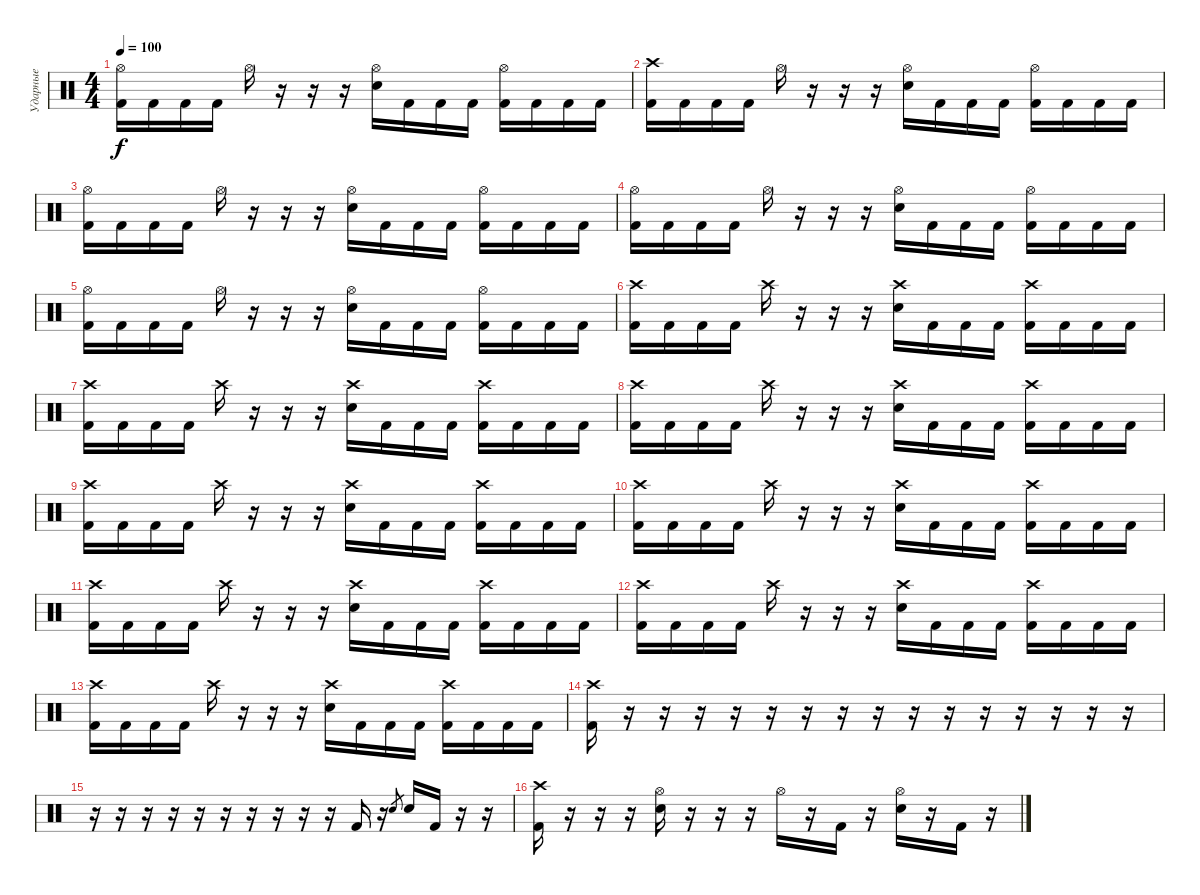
\track ("Ударные" "Ударные") {instrument percussion}
\staff {score}
\articulation defaults
\ts (4 4)
\tempo 100
\clef neutral
\ks c
("Hi-Hat (open)" "Kick (hit) 2").16{dy f} "Kick (hit) 2".16 "Kick (hit) 2".16 "Kick (hit) 2".16 "Hi-Hat (open)".16 r.16 r.16 r.16 ("Hi-Hat (open)" "Electric Snare (hit)").16 "Kick (hit) 2".16 "Kick (hit) 2".16 "Kick (hit) 2".16 ("Hi-Hat (open)" "Kick (hit) 2").16 "Kick (hit) 2".16 "Kick (hit) 2".16 "Kick (hit) 2".16 |
("Crash high (hit)" "Kick (hit) 2").16 "Kick (hit) 2".16 "Kick (hit) 2".16 "Kick (hit) 2".16 "Hi-Hat (open)".16 r.16 r.16 r.16 ("Hi-Hat (open)" "Electric Snare (hit)").16 "Kick (hit) 2".16 "Kick (hit) 2".16 "Kick (hit) 2".16 ("Hi-Hat (open)" "Kick (hit) 2").16 "Kick (hit) 2".16 "Kick (hit) 2".16 "Kick (hit) 2".16 |
("Hi-Hat (open)" "Kick (hit) 2").16 "Kick (hit) 2".16 "Kick (hit) 2".16 "Kick (hit) 2".16 "Hi-Hat (open)".16 r.16 r.16 r.16 ("Hi-Hat (open)" "Electric Snare (hit)").16 "Kick (hit) 2".16 "Kick (hit) 2".16 "Kick (hit) 2".16 ("Hi-Hat (open)" "Kick (hit) 2").16 "Kick (hit) 2".16 "Kick (hit) 2".16 "Kick (hit) 2".16 |
("Hi-Hat (open)" "Kick (hit) 2").16 "Kick (hit) 2".16 "Kick (hit) 2".16 "Kick (hit) 2".16 "Hi-Hat (open)".16 r.16 r.16 r.16 ("Hi-Hat (open)" "Electric Snare (hit)").16 "Kick (hit) 2".16 "Kick (hit) 2".16 "Kick (hit) 2".16 ("Hi-Hat (open)" "Kick (hit) 2").16 "Kick (hit) 2".16 "Kick (hit) 2".16 "Kick (hit) 2".16 |
("Hi-Hat (open)" "Kick (hit) 2").16 "Kick (hit) 2".16 "Kick (hit) 2".16 "Kick (hit) 2".16 "Hi-Hat (open)".16 r.16 r.16 r.16 ("Hi-Hat (open)" "Electric Snare (hit)").16 "Kick (hit) 2".16 "Kick (hit) 2".16 "Kick (hit) 2".16 ("Hi-Hat (open)" "Kick (hit) 2").16 "Kick (hit) 2".16 "Kick (hit) 2".16 "Kick (hit) 2".16 |
("Crash high (hit)" "Kick (hit) 2").16 "Kick (hit) 2".16 "Kick (hit) 2".16 "Kick (hit) 2".16 "Crash high (hit)".16 r.16 r.16 r.16 ("Crash high (hit)" "Electric Snare (hit)").16 "Kick (hit) 2".16 "Kick (hit) 2".16 "Kick (hit) 2".16 ("Crash high (hit)" "Kick (hit) 2").16 "Kick (hit) 2".16 "Kick (hit) 2".16 "Kick (hit) 2".16 |
("Crash high (hit)" "Kick (hit) 2").16 "Kick (hit) 2".16 "Kick (hit) 2".16 "Kick (hit) 2".16 "Crash high (hit)".16 r.16 r.16 r.16 ("Crash high (hit)" "Electric Snare (hit)").16 "Kick (hit) 2".16 "Kick (hit) 2".16 "Kick (hit) 2".16 ("Crash high (hit)" "Kick (hit) 2").16 "Kick (hit) 2".16 "Kick (hit) 2".16 "Kick (hit) 2".16 |
("Crash high (hit)" "Kick (hit) 2").16 "Kick (hit) 2".16 "Kick (hit) 2".16 "Kick (hit) 2".16 "Crash high (hit)".16 r.16 r.16 r.16 ("Crash high (hit)" "Electric Snare (hit)").16 "Kick (hit) 2".16 "Kick (hit) 2".16 "Kick (hit) 2".16 ("Crash high (hit)" "Kick (hit) 2").16 "Kick (hit) 2".16 "Kick (hit) 2".16 "Kick (hit) 2".16 |
("Crash high (hit)" "Kick (hit) 2").16 "Kick (hit) 2".16 "Kick (hit) 2".16 "Kick (hit) 2".16 "Crash high (hit)".16 r.16 r.16 r.16 ("Crash high (hit)" "Electric Snare (hit)").16 "Kick (hit) 2".16 "Kick (hit) 2".16 "Kick (hit) 2".16 ("Crash high (hit)" "Kick (hit) 2").16 "Kick (hit) 2".16 "Kick (hit) 2".16 "Kick (hit) 2".16 |
("Crash high (hit)" "Kick (hit) 2").16 "Kick (hit) 2".16 "Kick (hit) 2".16 "Kick (hit) 2".16 "Crash high (hit)".16 r.16 r.16 r.16 ("Crash high (hit)" "Electric Snare (hit)").16 "Kick (hit) 2".16 "Kick (hit) 2".16 "Kick (hit) 2".16 ("Crash high (hit)" "Kick (hit) 2").16 "Kick (hit) 2".16 "Kick (hit) 2".16 "Kick (hit) 2".16 |
("Crash high (hit)" "Kick (hit) 2").16 "Kick (hit) 2".16 "Kick (hit) 2".16 "Kick (hit) 2".16 "Crash high (hit)".16 r.16 r.16 r.16 ("Crash high (hit)" "Electric Snare (hit)").16 "Kick (hit) 2".16 "Kick (hit) 2".16 "Kick (hit) 2".16 ("Crash high (hit)" "Kick (hit) 2").16 "Kick (hit) 2".16 "Kick (hit) 2".16 "Kick (hit) 2".16 |
("Crash high (hit)" "Kick (hit) 2").16 "Kick (hit) 2".16 "Kick (hit) 2".16 "Kick (hit) 2".16 "Crash high (hit)".16 r.16 r.16 r.16 ("Crash high (hit)" "Electric Snare (hit)").16 "Kick (hit) 2".16 "Kick (hit) 2".16 "Kick (hit) 2".16 ("Crash high (hit)" "Kick (hit) 2").16 "Kick (hit) 2".16 "Kick (hit) 2".16 "Kick (hit) 2".16 |
("Crash high (hit)" "Kick (hit) 2").16 "Kick (hit) 2".16 "Kick (hit) 2".16 "Kick (hit) 2".16 "Crash high (hit)".16 r.16 r.16 r.16 ("Crash high (hit)" "Electric Snare (hit)").16 "Kick (hit) 2".16 "Kick (hit) 2".16 "Kick (hit) 2".16 ("Crash high (hit)" "Kick (hit) 2").16 "Kick (hit) 2".16 "Kick (hit) 2".16 "Kick (hit) 2".16 |
("Crash high (hit)" "Kick (hit) 2").16 r.16 r.16 r.16 r.16 r.16 r.16 r.16 r.16 r.16 r.16 r.16 r.16 r.16 r.16 r.16 |
r.16 r.16 r.16 r.16 r.16 r.16 r.16 r.16 r.16 r.16 "Kick (hit) 2".16 r.16 "Electric Snare (hit)".8{gr} "Electric Snare (hit)".16 "Kick (hit) 2".16 r.16 r.16 |
("Crash high (hit)" "Kick (hit) 2").16 r.16 r.16 r.16 ("Hi-Hat (open)" "Electric Snare (hit)").16 r.16 r.16 r.16 "Hi-Hat (open)".16 r.16 "Kick (hit) 2".16 r.16 ("Hi-Hat (open)" "Electric Snare (hit)").16 r.16 "Kick (hit) 2".16 r.16
